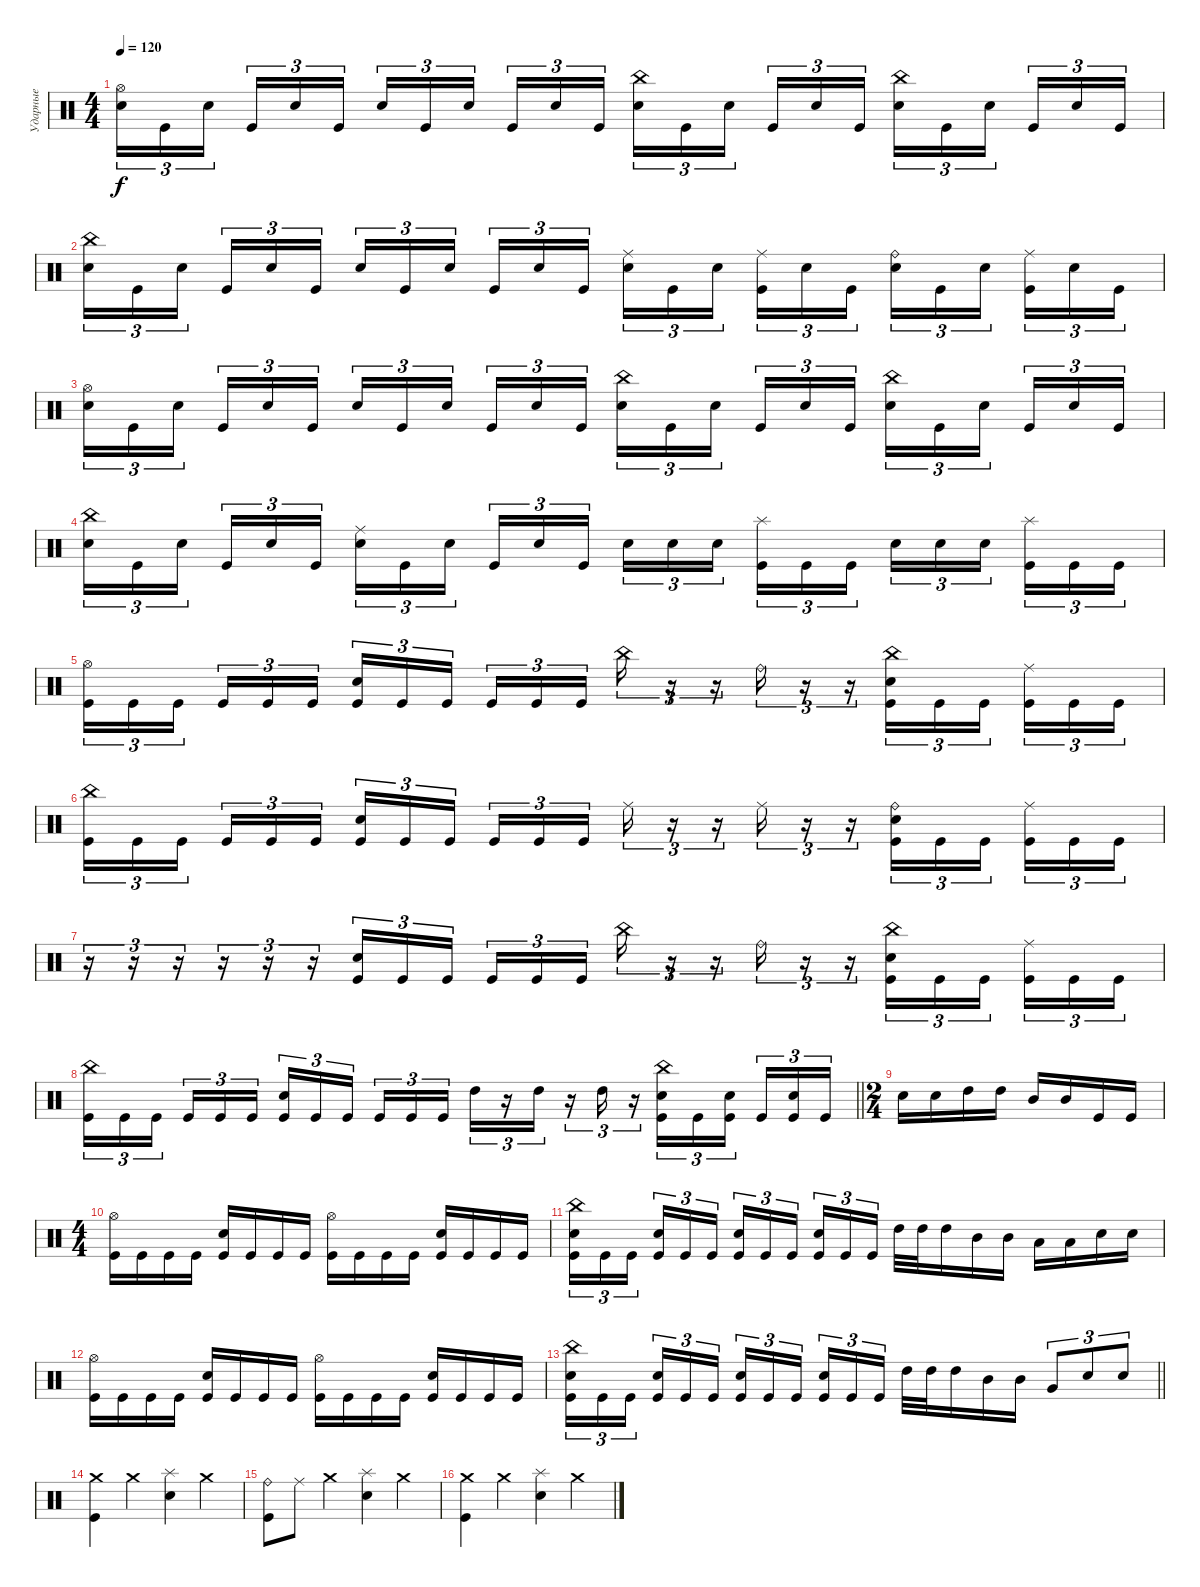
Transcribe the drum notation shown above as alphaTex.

\track ("Ударные" "Ударные") {instrument percussion}
\staff {score}
\articulation defaults
\ts (4 4)
\tempo 120
\clef neutral
\ks c
("Hi-Hat (open)" "Electric Snare (hit)").16{tu (3 2) dy f} "Kick (hit)".16{tu (3 2)} "Electric Snare (hit)".16{tu (3 2) beam splitsecondary} "Kick (hit)".16{tu (3 2)} "Electric Snare (hit)".16{tu (3 2)} "Kick (hit)".16{tu (3 2)} "Electric Snare (hit)".16{tu (3 2)} "Kick (hit)".16{tu (3 2)} "Electric Snare (hit)".16{tu (3 2) beam splitsecondary} "Kick (hit)".16{tu (3 2)} "Electric Snare (hit)".16{tu (3 2)} "Kick (hit)".16{tu (3 2)} ("China (hit)" "Electric Snare (hit)").16{tu (3 2)} "Kick (hit)".16{tu (3 2)} "Electric Snare (hit)".16{tu (3 2) beam splitsecondary} "Kick (hit)".16{tu (3 2)} "Electric Snare (hit)".16{tu (3 2)} "Kick (hit)".16{tu (3 2)} ("China (hit)" "Electric Snare (hit)").16{tu (3 2)} "Kick (hit)".16{tu (3 2)} "Electric Snare (hit)".16{tu (3 2) beam splitsecondary} "Kick (hit)".16{tu (3 2)} "Electric Snare (hit)".16{tu (3 2)} "Kick (hit)".16{tu (3 2)} |
("China (hit)" "Electric Snare (hit)").16{tu (3 2)} "Kick (hit)".16{tu (3 2)} "Electric Snare (hit)".16{tu (3 2) beam splitsecondary} "Kick (hit)".16{tu (3 2)} "Electric Snare (hit)".16{tu (3 2)} "Kick (hit)".16{tu (3 2)} "Electric Snare (hit)".16{tu (3 2)} "Kick (hit)".16{tu (3 2)} "Electric Snare (hit)".16{tu (3 2) beam splitsecondary} "Kick (hit)".16{tu (3 2)} "Electric Snare (hit)".16{tu (3 2)} "Kick (hit)".16{tu (3 2)} ("Ride (middle)" "Electric Snare (hit)").16{tu (3 2)} "Kick (hit)".16{tu (3 2)} "Electric Snare (hit)".16{tu (3 2) beam splitsecondary} ("Ride (middle)" "Kick (hit)").16{tu (3 2)} "Electric Snare (hit)".16{tu (3 2)} "Kick (hit)".16{tu (3 2)} ("Ride (bell)" "Electric Snare (hit)").16{tu (3 2)} "Kick (hit)".16{tu (3 2)} "Electric Snare (hit)".16{tu (3 2) beam splitsecondary} ("Ride (middle)" "Kick (hit)").16{tu (3 2)} "Electric Snare (hit)".16{tu (3 2)} "Kick (hit)".16{tu (3 2)} |
("Hi-Hat (open)" "Electric Snare (hit)").16{tu (3 2)} "Kick (hit)".16{tu (3 2)} "Electric Snare (hit)".16{tu (3 2) beam splitsecondary} "Kick (hit)".16{tu (3 2)} "Electric Snare (hit)".16{tu (3 2)} "Kick (hit)".16{tu (3 2)} "Electric Snare (hit)".16{tu (3 2)} "Kick (hit)".16{tu (3 2)} "Electric Snare (hit)".16{tu (3 2) beam splitsecondary} "Kick (hit)".16{tu (3 2)} "Electric Snare (hit)".16{tu (3 2)} "Kick (hit)".16{tu (3 2)} ("China (hit)" "Electric Snare (hit)").16{tu (3 2)} "Kick (hit)".16{tu (3 2)} "Electric Snare (hit)".16{tu (3 2) beam splitsecondary} "Kick (hit)".16{tu (3 2)} "Electric Snare (hit)".16{tu (3 2)} "Kick (hit)".16{tu (3 2)} ("China (hit)" "Electric Snare (hit)").16{tu (3 2)} "Kick (hit)".16{tu (3 2)} "Electric Snare (hit)".16{tu (3 2) beam splitsecondary} "Kick (hit)".16{tu (3 2)} "Electric Snare (hit)".16{tu (3 2)} "Kick (hit)".16{tu (3 2)} |
("China (hit)" "Electric Snare (hit)").16{tu (3 2)} "Kick (hit)".16{tu (3 2)} "Electric Snare (hit)".16{tu (3 2) beam splitsecondary} "Kick (hit)".16{tu (3 2)} "Electric Snare (hit)".16{tu (3 2)} "Kick (hit)".16{tu (3 2)} ("Ride (middle)" "Electric Snare (hit)").16{tu (3 2)} "Kick (hit)".16{tu (3 2)} "Electric Snare (hit)".16{tu (3 2) beam splitsecondary} "Kick (hit)".16{tu (3 2)} "Electric Snare (hit)".16{tu (3 2)} "Kick (hit)".16{tu (3 2)} "Electric Snare (hit)".16{tu (3 2)} "Electric Snare (hit)".16{tu (3 2)} "Electric Snare (hit)".16{tu (3 2) beam splitsecondary} ("Splash (hit)" "Kick (hit)").16{tu (3 2)} "Kick (hit)".16{tu (3 2)} "Kick (hit)".16{tu (3 2)} "Electric Snare (hit)".16{tu (3 2)} "Electric Snare (hit)".16{tu (3 2)} "Electric Snare (hit)".16{tu (3 2) beam splitsecondary} ("Splash (hit)" "Kick (hit)").16{tu (3 2)} "Kick (hit)".16{tu (3 2)} "Kick (hit)".16{tu (3 2)} |
("Hi-Hat (open)" "Kick (hit)").16{tu (3 2)} "Kick (hit)".16{tu (3 2)} "Kick (hit)".16{tu (3 2) beam splitsecondary} "Kick (hit)".16{tu (3 2)} "Kick (hit)".16{tu (3 2)} "Kick (hit)".16{tu (3 2)} ("Electric Snare (hit)" "Kick (hit)").16{tu (3 2)} "Kick (hit)".16{tu (3 2)} "Kick (hit)".16{tu (3 2) beam splitsecondary} "Kick (hit)".16{tu (3 2)} "Kick (hit)".16{tu (3 2)} "Kick (hit)".16{tu (3 2)} "China (hit)".16{tu (3 2)} r.16{tu (3 2)} r.16{tu (3 2)} "Ride (bell)".16{tu (3 2)} r.16{tu (3 2)} r.16{tu (3 2)} ("China (hit)" "Electric Snare (hit)" "Kick (hit)").16{tu (3 2)} "Kick (hit)".16{tu (3 2)} "Kick (hit)".16{tu (3 2) beam splitsecondary} ("Ride (middle)" "Kick (hit)").16{tu (3 2)} "Kick (hit)".16{tu (3 2)} "Kick (hit)".16{tu (3 2)} |
("China (hit)" "Kick (hit)").16{tu (3 2)} "Kick (hit)".16{tu (3 2)} "Kick (hit)".16{tu (3 2) beam splitsecondary} "Kick (hit)".16{tu (3 2)} "Kick (hit)".16{tu (3 2)} "Kick (hit)".16{tu (3 2)} ("Electric Snare (hit)" "Kick (hit)").16{tu (3 2)} "Kick (hit)".16{tu (3 2)} "Kick (hit)".16{tu (3 2) beam splitsecondary} "Kick (hit)".16{tu (3 2)} "Kick (hit)".16{tu (3 2)} "Kick (hit)".16{tu (3 2)} "Ride (middle)".16{tu (3 2)} r.16{tu (3 2)} r.16{tu (3 2)} "Ride (middle)".16{tu (3 2)} r.16{tu (3 2)} r.16{tu (3 2)} ("Ride (bell)" "Electric Snare (hit)" "Kick (hit)").16{tu (3 2)} "Kick (hit)".16{tu (3 2)} "Kick (hit)".16{tu (3 2) beam splitsecondary} ("Ride (middle)" "Kick (hit)").16{tu (3 2)} "Kick (hit)".16{tu (3 2)} "Kick (hit)".16{tu (3 2)} |
r.16{tu (3 2)} r.16{tu (3 2)} r.16{tu (3 2)} r.16{tu (3 2)} r.16{tu (3 2)} r.16{tu (3 2)} ("Electric Snare (hit)" "Kick (hit)").16{tu (3 2)} "Kick (hit)".16{tu (3 2)} "Kick (hit)".16{tu (3 2) beam splitsecondary} "Kick (hit)".16{tu (3 2)} "Kick (hit)".16{tu (3 2)} "Kick (hit)".16{tu (3 2)} "China (hit)".16{tu (3 2)} r.16{tu (3 2)} r.16{tu (3 2)} "Ride (bell)".16{tu (3 2)} r.16{tu (3 2)} r.16{tu (3 2)} ("China (hit)" "Electric Snare (hit)" "Kick (hit)").16{tu (3 2)} "Kick (hit)".16{tu (3 2)} "Kick (hit)".16{tu (3 2) beam splitsecondary} ("Ride (middle)" "Kick (hit)").16{tu (3 2)} "Kick (hit)".16{tu (3 2)} "Kick (hit)".16{tu (3 2)} |
\barLineRight lightlight
("China (hit)" "Kick (hit)").16{tu (3 2)} "Kick (hit)".16{tu (3 2)} "Kick (hit)".16{tu (3 2) beam splitsecondary} "Kick (hit)".16{tu (3 2)} "Kick (hit)".16{tu (3 2)} "Kick (hit)".16{tu (3 2)} ("Electric Snare (hit)" "Kick (hit)").16{tu (3 2)} "Kick (hit)".16{tu (3 2)} "Kick (hit)".16{tu (3 2) beam splitsecondary} "Kick (hit)".16{tu (3 2)} "Kick (hit)".16{tu (3 2)} "Kick (hit)".16{tu (3 2)} "High Tom (hit)".16{tu (3 2)} r.16{tu (3 2)} "High Tom (hit)".16{tu (3 2)} r.16{tu (3 2)} "High Tom (hit)".16{tu (3 2)} r.16{tu (3 2)} ("China (hit)" "Electric Snare (hit)" "Kick (hit)").16{tu (3 2)} "Kick (hit)".16{tu (3 2)} ("Electric Snare (hit)" "Kick (hit)").16{tu (3 2) beam splitsecondary} "Kick (hit)".16{tu (3 2)} ("Electric Snare (hit)" "Kick (hit)").16{tu (3 2)} "Kick (hit)".16{tu (3 2)} |
\ts (2 4)
"Electric Snare (hit)".16 "Electric Snare (hit)".16 "High Tom (hit)".16 "High Tom (hit)".16 "Mid Tom (hit)".16 "Mid Tom (hit)".16 "Kick (hit)".16 "Kick (hit)".16 |
\ts (4 4)
("Hi-Hat (open)" "Kick (hit)").16 "Kick (hit)".16 "Kick (hit)".16 "Kick (hit)".16 ("Electric Snare (hit)" "Kick (hit)").16 "Kick (hit)".16 "Kick (hit)".16 "Kick (hit)".16 ("Hi-Hat (open)" "Kick (hit)").16 "Kick (hit)".16 "Kick (hit)".16 "Kick (hit)".16 ("Electric Snare (hit)" "Kick (hit)").16 "Kick (hit)".16 "Kick (hit)".16 "Kick (hit)".16 |
("China (hit)" "Electric Snare (hit)" "Kick (hit)").16{tu (3 2)} "Kick (hit)".16{tu (3 2)} "Kick (hit)".16{tu (3 2) beam splitsecondary} ("Electric Snare (hit)" "Kick (hit)").16{tu (3 2)} "Kick (hit)".16{tu (3 2)} "Kick (hit)".16{tu (3 2)} ("Electric Snare (hit)" "Kick (hit)").16{tu (3 2)} "Kick (hit)".16{tu (3 2)} "Kick (hit)".16{tu (3 2) beam splitsecondary} ("Electric Snare (hit)" "Kick (hit)").16{tu (3 2)} "Kick (hit)".16{tu (3 2)} "Kick (hit)".16{tu (3 2)} "High Tom (hit)".32 "High Tom (hit)".32 "High Tom (hit)".16 "Mid Tom (hit)".16 "Mid Tom (hit)".16 "Low Tom (hit)".16 "Low Tom (hit)".16 "Electric Snare (hit)".16 "Electric Snare (hit)".16 |
("Hi-Hat (open)" "Kick (hit)").16 "Kick (hit)".16 "Kick (hit)".16 "Kick (hit)".16 ("Electric Snare (hit)" "Kick (hit)").16 "Kick (hit)".16 "Kick (hit)".16 "Kick (hit)".16 ("Hi-Hat (open)" "Kick (hit)").16 "Kick (hit)".16 "Kick (hit)".16 "Kick (hit)".16 ("Electric Snare (hit)" "Kick (hit)").16 "Kick (hit)".16 "Kick (hit)".16 "Kick (hit)".16 |
\barLineRight lightlight
("China (hit)" "Electric Snare (hit)" "Kick (hit)").16{tu (3 2)} "Kick (hit)".16{tu (3 2)} "Kick (hit)".16{tu (3 2) beam splitsecondary} ("Electric Snare (hit)" "Kick (hit)").16{tu (3 2)} "Kick (hit)".16{tu (3 2)} "Kick (hit)".16{tu (3 2)} ("Electric Snare (hit)" "Kick (hit)").16{tu (3 2)} "Kick (hit)".16{tu (3 2)} "Kick (hit)".16{tu (3 2) beam splitsecondary} ("Electric Snare (hit)" "Kick (hit)").16{tu (3 2)} "Kick (hit)".16{tu (3 2)} "Kick (hit)".16{tu (3 2)} "High Tom (hit)".32 "High Tom (hit)".32 "High Tom (hit)".16 "Mid Tom (hit)".16 "Mid Tom (hit)".16 "Very Low Tom (hit)".8{tu (3 2)} "Electric Snare (hit)".8{tu (3 2)} "Electric Snare (hit)".8{tu (3 2)} |
\section ("" " ")
("Crash medium (hit)" "Kick (hit)").4 "Crash medium (hit)".4 ("Splash (hit)" "Electric Snare (hit)").4 "Crash medium (hit)".4 |
("Ride (bell)" "Kick (hit)").8 "Ride (middle)".8 "Crash medium (hit)".4 ("Splash (hit)" "Electric Snare (hit)").4 "Crash medium (hit)".4 |
("Crash medium (hit)" "Kick (hit)").4 "Crash medium (hit)".4 ("Splash (hit)" "Electric Snare (hit)").4 "Crash medium (hit)".4
